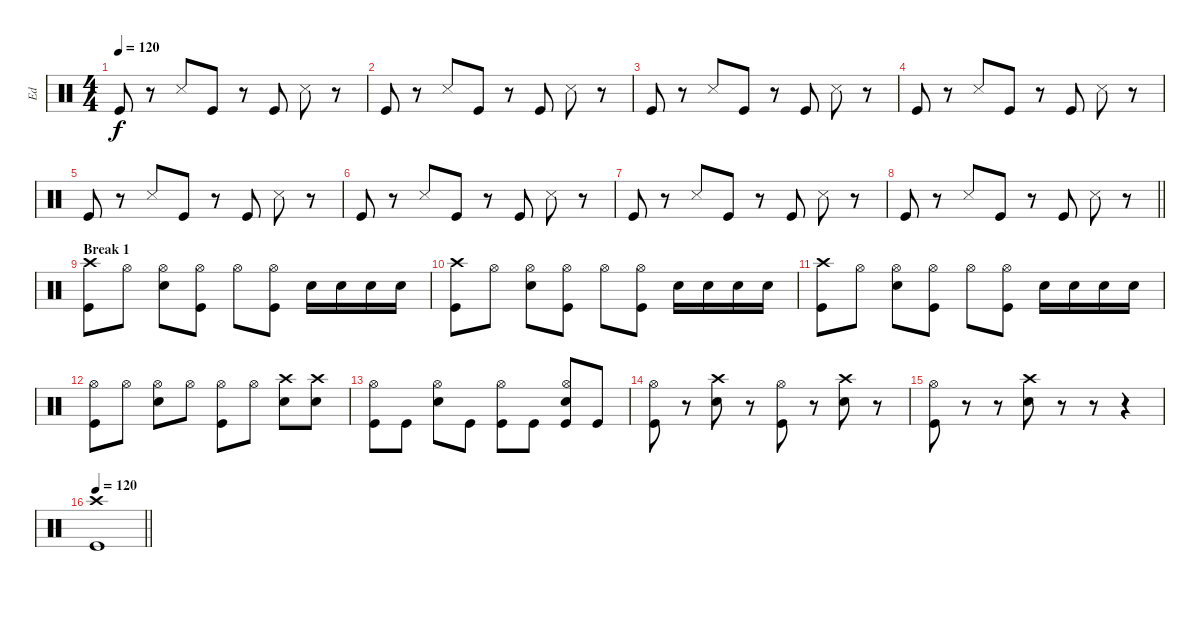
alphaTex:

\track ("Ed" "Ed") {instrument percussion}
\staff {score}
\articulation defaults
\ts (4 4)
\tempo 120
\clef neutral
\ks c "Kick (hit)".8{dy f}
r.8 "Snare (side stick) 3".8 "Kick (hit)".8 r.8 "Kick (hit)".8 "Snare (side stick) 3".8 r.8 |
"Kick (hit)".8 r.8 "Snare (side stick) 3".8 "Kick (hit)".8 r.8 "Kick (hit)".8 "Snare (side stick) 3".8 r.8 |
"Kick (hit)".8 r.8 "Snare (side stick) 3".8 "Kick (hit)".8 r.8 "Kick (hit)".8 "Snare (side stick) 3".8 r.8 |
"Kick (hit)".8 r.8 "Snare (side stick) 3".8 "Kick (hit)".8 r.8 "Kick (hit)".8 "Snare (side stick) 3".8 r.8 |
"Kick (hit)".8 r.8 "Snare (side stick) 3".8 "Kick (hit)".8 r.8 "Kick (hit)".8 "Snare (side stick) 3".8 r.8 |
"Kick (hit)".8 r.8 "Snare (side stick) 3".8 "Kick (hit)".8 r.8 "Kick (hit)".8 "Snare (side stick) 3".8 r.8 |
"Kick (hit)".8 r.8 "Snare (side stick) 3".8 "Kick (hit)".8 r.8 "Kick (hit)".8 "Snare (side stick) 3".8 r.8 |
\barLineRight lightlight "Kick (hit)".8
r.8 "Snare (side stick) 3".8 "Kick (hit)".8 r.8 "Kick (hit)".8 "Snare (side stick) 3".8 r.8 |
\section ("" "Break 1")
("Kick (hit)" "Crash high (hit)").8 "Hi-Hat (open)".8 ("Snare (hit) 2" "Hi-Hat (open)").8 ("Kick (hit)" "Hi-Hat (open)").8 "Hi-Hat (open)".8 ("Kick (hit)" "Hi-Hat (open)").8 "Snare (hit) 2".16 "Snare (hit) 2".16 "Snare (hit) 2".16 "Snare (hit) 2".16 |
("Kick (hit)" "Crash high (hit)").8 "Hi-Hat (open)".8 ("Snare (hit) 2" "Hi-Hat (open)").8 ("Kick (hit)" "Hi-Hat (open)").8 "Hi-Hat (open)".8 ("Kick (hit)" "Hi-Hat (open)").8 "Snare (hit) 2".16 "Snare (hit) 2".16 "Snare (hit) 2".16 "Snare (hit) 2".16 |
("Kick (hit)" "Crash high (hit)").8 "Hi-Hat (open)".8 ("Snare (hit) 2" "Hi-Hat (open)").8 ("Kick (hit)" "Hi-Hat (open)").8 "Hi-Hat (open)".8 ("Kick (hit)" "Hi-Hat (open)").8 "Snare (hit) 2".16 "Snare (hit) 2".16 "Snare (hit) 2".16 "Snare (hit) 2".16 |
("Hi-Hat (open)" "Kick (hit)").8 "Hi-Hat (open)".8 ("Snare (hit) 2" "Hi-Hat (open)").8 "Hi-Hat (open)".8 ("Kick (hit)" "Hi-Hat (open)").8 "Hi-Hat (open)".8 ("Crash high (hit)" "Snare (hit) 2").8 ("Crash high (hit)" "Snare (hit) 2").8{volume 14} |
("Hi-Hat (open)" "Kick (hit)").8{volume 16} "Kick (hit)".8 ("Snare (hit) 2" "Hi-Hat (open)").8 "Kick (hit)".8 ("Kick (hit)" "Hi-Hat (open)").8 "Kick (hit)".8 ("Kick (hit)" "Snare (hit) 2" "Hi-Hat (open)").8 "Kick (hit)".8 |
("Hi-Hat (open)" "Kick (hit)").8 r.8 ("Crash high (hit)" "Snare (hit) 2").8 r.8 ("Kick (hit)" "Hi-Hat (open)").8 r.8 ("Crash high (hit)" "Snare (hit) 2").8 r.8 |
("Hi-Hat (open)" "Kick (hit)").8 r.8 r.8 ("Snare (hit) 2" "Crash high (hit)").8 r.8 r.8 r.4 |
\tempo 120
\barLineRight lightlight
("Kick (hit)" "Crash high (hit)").1
